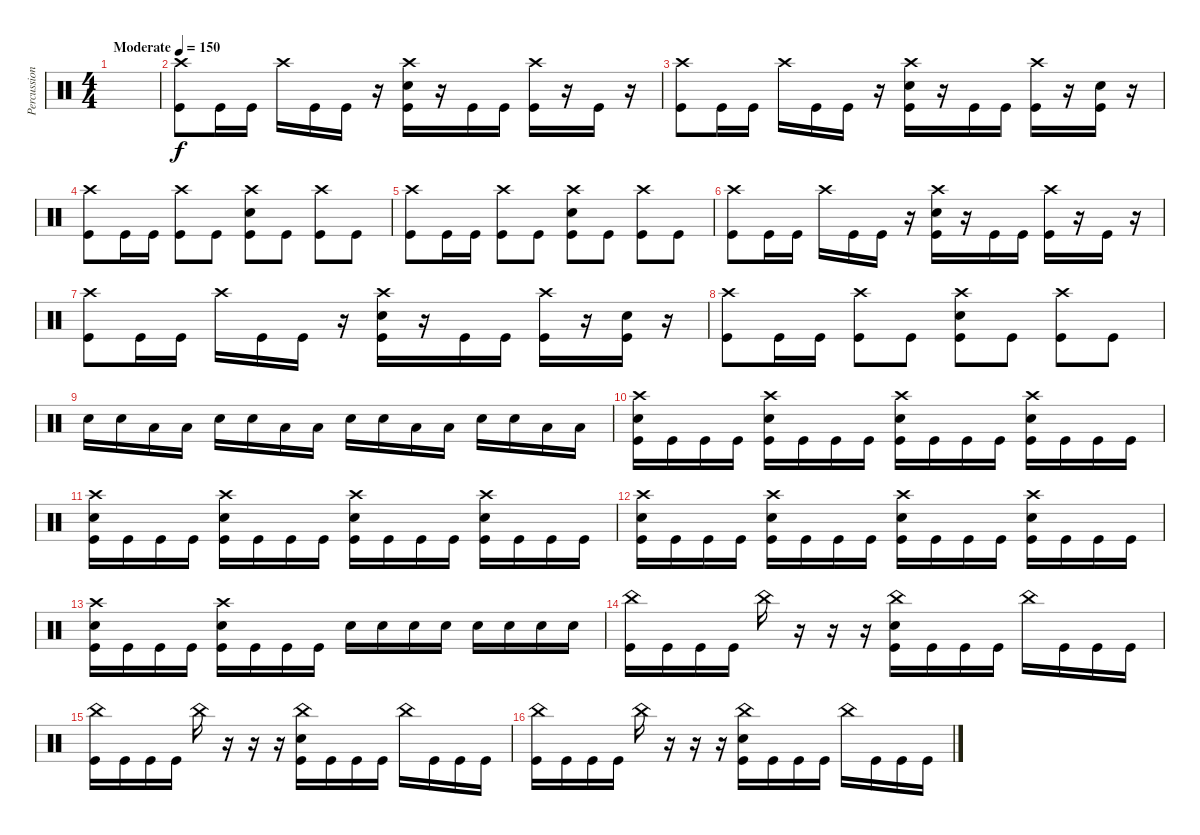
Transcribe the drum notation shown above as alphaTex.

\track ("Percussion" "Percussion") {instrument percussion}
\staff {score}
\articulation defaults
\ts (4 4)
\tempo (150 "Moderate")
\clef neutral
\ks c
|
("Crash high (hit)" "Kick (hit)").8 "Kick (hit)".16 "Kick (hit)".16 "Crash high (hit)".16 "Kick (hit)".16 "Kick (hit)".16 r.16 ("Crash high (hit)" "Electric Snare (hit)" "Kick (hit)").16 r.16 "Kick (hit)".16 "Kick (hit)".16 ("Crash high (hit)" "Kick (hit)").16 r.16 "Kick (hit)".16 r.16 |
("Crash high (hit)" "Kick (hit)").8 "Kick (hit)".16 "Kick (hit)".16 "Crash high (hit)".16 "Kick (hit)".16 "Kick (hit)".16 r.16 ("Crash high (hit)" "Electric Snare (hit)" "Kick (hit)").16 r.16 "Kick (hit)".16 "Kick (hit)".16 ("Crash high (hit)" "Kick (hit)").16 r.16 ("Electric Snare (hit)" "Kick (hit)").16 r.16 |
("Crash high (hit)" "Kick (hit)").8 "Kick (hit)".16 "Kick (hit)".16 ("Crash high (hit)" "Kick (hit)").8 "Kick (hit)".8 ("Crash high (hit)" "Electric Snare (hit)" "Kick (hit)").8 "Kick (hit)".8 ("Crash high (hit)" "Kick (hit)").8 "Kick (hit)".8 |
("Crash high (hit)" "Kick (hit)").8 "Kick (hit)".16 "Kick (hit)".16 ("Crash high (hit)" "Kick (hit)").8 "Kick (hit)".8 ("Crash high (hit)" "Electric Snare (hit)" "Kick (hit)").8 "Kick (hit)".8 ("Crash high (hit)" "Kick (hit)").8 "Kick (hit)".8 |
("Crash high (hit)" "Kick (hit)").8 "Kick (hit)".16 "Kick (hit)".16 "Crash high (hit)".16 "Kick (hit)".16 "Kick (hit)".16 r.16 ("Crash high (hit)" "Electric Snare (hit)" "Kick (hit)").16 r.16 "Kick (hit)".16 "Kick (hit)".16 ("Crash high (hit)" "Kick (hit)").16 r.16 "Kick (hit)".16 r.16 |
("Crash high (hit)" "Kick (hit)").8 "Kick (hit)".16 "Kick (hit)".16 "Crash high (hit)".16 "Kick (hit)".16 "Kick (hit)".16 r.16 ("Crash high (hit)" "Electric Snare (hit)" "Kick (hit)").16 r.16 "Kick (hit)".16 "Kick (hit)".16 ("Crash high (hit)" "Kick (hit)").16 r.16 ("Electric Snare (hit)" "Kick (hit)").16 r.16 |
("Crash high (hit)" "Kick (hit)").8 "Kick (hit)".16 "Kick (hit)".16 ("Crash high (hit)" "Kick (hit)").8 "Kick (hit)".8 ("Crash high (hit)" "Electric Snare (hit)" "Kick (hit)").8 "Kick (hit)".8 ("Crash high (hit)" "Kick (hit)").8 "Kick (hit)".8 |
"Electric Snare (hit)".16 "Electric Snare (hit)".16 "Low Floor Tom (hit)".16 "Low Floor Tom (hit)".16 "Electric Snare (hit)".16 "Electric Snare (hit)".16 "Low Tom (hit)".16 "Low Tom (hit)".16 "Electric Snare (hit)".16 "Electric Snare (hit)".16 "Low Tom (hit)".16 "Low Tom (hit)".16 "Electric Snare (hit)".16 "Electric Snare (hit)".16 "Low Tom (hit)".16 "Low Tom (hit)".16 |
("Crash high (hit)" "Electric Snare (hit)" "Kick (hit)").16 "Kick (hit)".16 "Kick (hit)".16 "Kick (hit)".16 ("Crash high (hit)" "Electric Snare (hit)" "Kick (hit)").16 "Kick (hit)".16 "Kick (hit)".16 "Kick (hit)".16 ("Crash high (hit)" "Electric Snare (hit)" "Kick (hit)").16 "Kick (hit)".16 "Kick (hit)".16 "Kick (hit)".16 ("Crash high (hit)" "Electric Snare (hit)" "Kick (hit)").16 "Kick (hit)".16 "Kick (hit)".16 "Kick (hit)".16 |
("Crash high (hit)" "Electric Snare (hit)" "Kick (hit)").16 "Kick (hit)".16 "Kick (hit)".16 "Kick (hit)".16 ("Crash high (hit)" "Electric Snare (hit)" "Kick (hit)").16 "Kick (hit)".16 "Kick (hit)".16 "Kick (hit)".16 ("Crash high (hit)" "Electric Snare (hit)" "Kick (hit)").16 "Kick (hit)".16 "Kick (hit)".16 "Kick (hit)".16 ("Crash high (hit)" "Electric Snare (hit)" "Kick (hit)").16 "Kick (hit)".16 "Kick (hit)".16 "Kick (hit)".16 |
("Crash high (hit)" "Electric Snare (hit)" "Kick (hit)").16 "Kick (hit)".16 "Kick (hit)".16 "Kick (hit)".16 ("Crash high (hit)" "Electric Snare (hit)" "Kick (hit)").16 "Kick (hit)".16 "Kick (hit)".16 "Kick (hit)".16 ("Crash high (hit)" "Electric Snare (hit)" "Kick (hit)").16 "Kick (hit)".16 "Kick (hit)".16 "Kick (hit)".16 ("Crash high (hit)" "Electric Snare (hit)" "Kick (hit)").16 "Kick (hit)".16 "Kick (hit)".16 "Kick (hit)".16 |
("Crash high (hit)" "Electric Snare (hit)" "Kick (hit)").16 "Kick (hit)".16 "Kick (hit)".16 "Kick (hit)".16 ("Crash high (hit)" "Electric Snare (hit)" "Kick (hit)").16 "Kick (hit)".16 "Kick (hit)".16 "Kick (hit)".16 "Electric Snare (hit)".16 "Electric Snare (hit)".16 "Electric Snare (hit)".16 "Electric Snare (hit)".16 "Electric Snare (hit)".16 "Electric Snare (hit)".16 "Electric Snare (hit)".16 "Electric Snare (hit)".16 |
("China (hit)" "Kick (hit)").16 "Kick (hit)".16 "Kick (hit)".16 "Kick (hit)".16 "China (hit)".16 r.16 r.16 r.16 ("China (hit)" "Electric Snare (hit)" "Kick (hit)").16 "Kick (hit)".16 "Kick (hit)".16 "Kick (hit)".16 "China (hit)".16 "Kick (hit)".16 "Kick (hit)".16 "Kick (hit)".16 |
("China (hit)" "Kick (hit)").16 "Kick (hit)".16 "Kick (hit)".16 "Kick (hit)".16 "China (hit)".16 r.16 r.16 r.16 ("China (hit)" "Electric Snare (hit)" "Kick (hit)").16 "Kick (hit)".16 "Kick (hit)".16 "Kick (hit)".16 "China (hit)".16 "Kick (hit)".16 "Kick (hit)".16 "Kick (hit)".16 |
("China (hit)" "Kick (hit)").16 "Kick (hit)".16 "Kick (hit)".16 "Kick (hit)".16 "China (hit)".16 r.16 r.16 r.16 ("China (hit)" "Electric Snare (hit)" "Kick (hit)").16 "Kick (hit)".16 "Kick (hit)".16 "Kick (hit)".16 "China (hit)".16 "Kick (hit)".16 "Kick (hit)".16 "Kick (hit)".16
